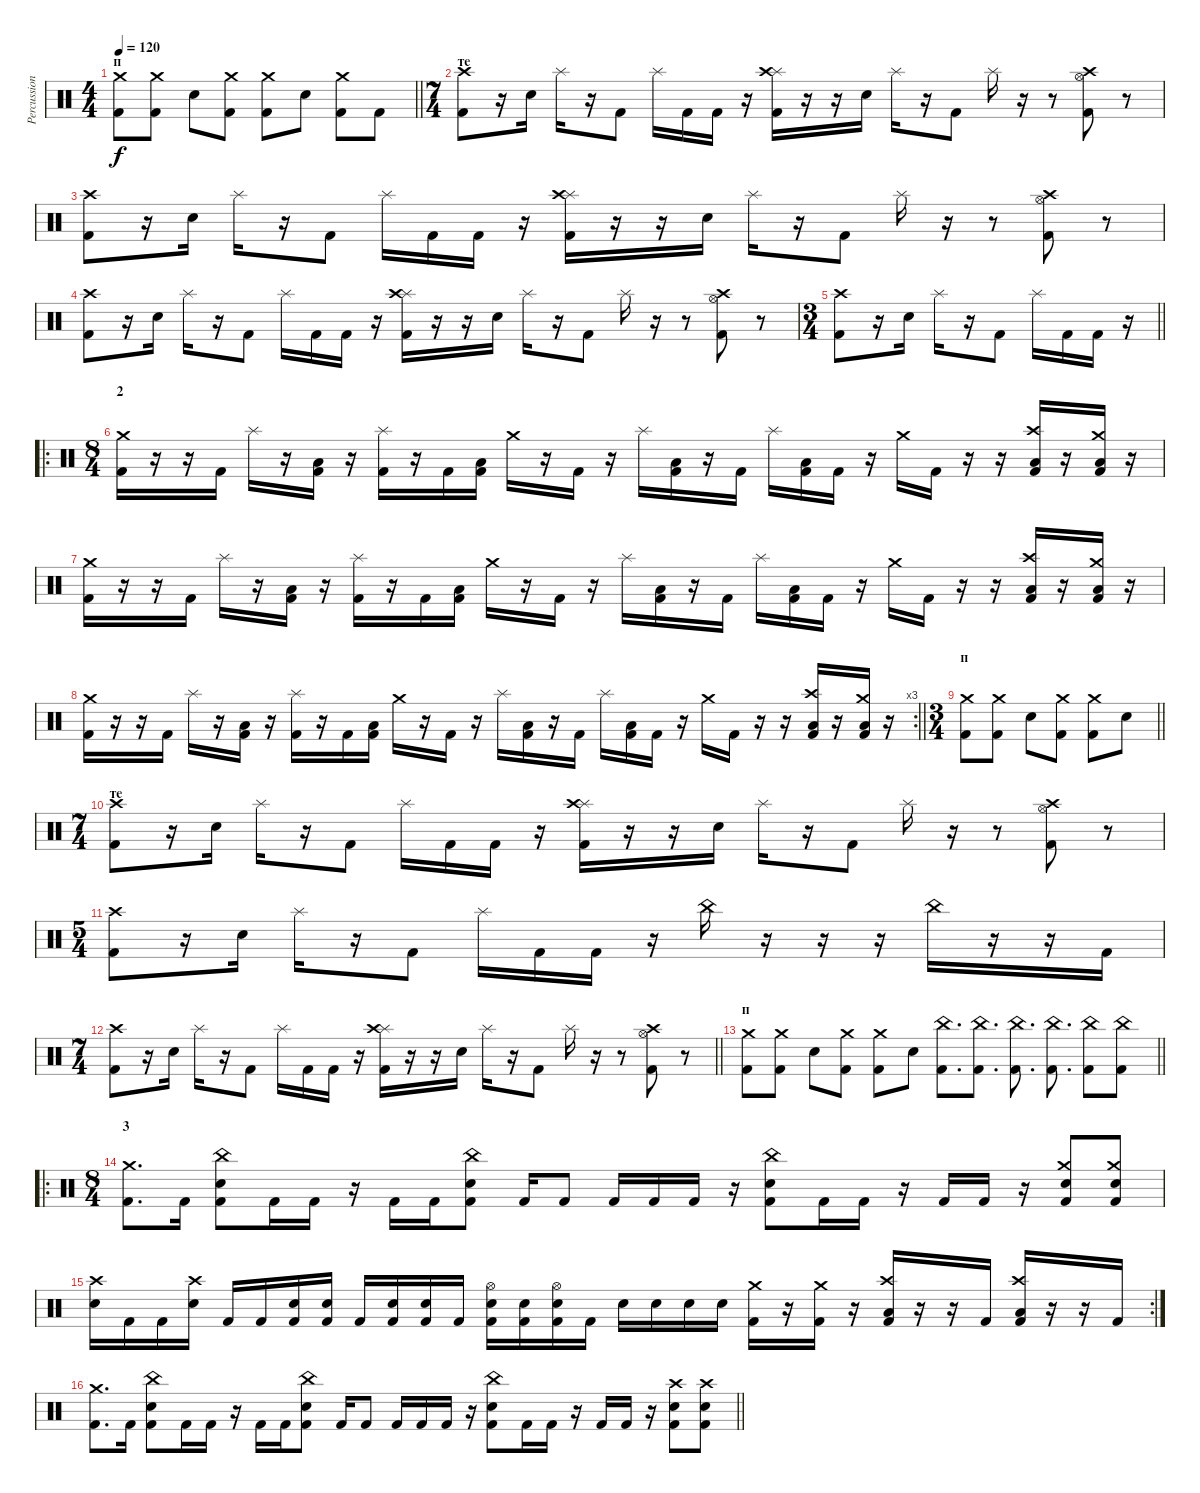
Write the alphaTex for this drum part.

\track ("Percussion" "Percussion") {instrument percussion}
\staff {score}
\articulation defaults
\ts (4 4)
\section ("" "п")
\tempo 120
\clef neutral
\barLineRight lightlight
\ks c
("Kick (hit) 2" "Crash medium (hit)").8{dy f} ("Kick (hit) 2" "Crash medium (hit)").8 "Snare (hit) 2".8 ("Kick (hit) 2" "Crash medium (hit)").8 ("Kick (hit) 2" "Crash medium (hit)").8 "Snare (hit) 2".8 ("Kick (hit) 2" "Crash medium (hit)").8 "Kick (hit) 2".8 |
\ts (7 4)
\section ("" "те")
("Crash high (hit)" "Kick (hit) 2").8 r.16 "Snare (hit) 2".16 "Splash (hit)".16 r.16 "Kick (hit) 2".8 "Splash (hit)".16 "Kick (hit) 2".16 "Kick (hit) 2".16 r.16 ("Splash (hit)" "Crash high (hit)" "Kick (hit) 2").16 r.16 r.16 "Snare (hit) 2".16 "Splash (hit)".16 r.16 "Kick (hit) 2".8 "Splash (hit)".16 r.16 r.8 ("Crash high (hit)" "Hi-Hat (open)" "Kick (hit) 2").8 r.8 |
("Crash high (hit)" "Kick (hit) 2").8 r.16 "Snare (hit) 2".16 "Splash (hit)".16 r.16 "Kick (hit) 2".8 "Splash (hit)".16 "Kick (hit) 2".16 "Kick (hit) 2".16 r.16 ("Splash (hit)" "Crash high (hit)" "Kick (hit) 2").16 r.16 r.16 "Snare (hit) 2".16 "Splash (hit)".16 r.16 "Kick (hit) 2".8 "Splash (hit)".16 r.16 r.8 ("Crash high (hit)" "Hi-Hat (open)" "Kick (hit) 2").8 r.8 |
("Crash high (hit)" "Kick (hit) 2").8 r.16 "Snare (hit) 2".16 "Splash (hit)".16 r.16 "Kick (hit) 2".8 "Splash (hit)".16 "Kick (hit) 2".16 "Kick (hit) 2".16 r.16 ("Splash (hit)" "Crash high (hit)" "Kick (hit) 2").16 r.16 r.16 "Snare (hit) 2".16 "Splash (hit)".16 r.16 "Kick (hit) 2".8 "Splash (hit)".16 r.16 r.8 ("Crash high (hit)" "Hi-Hat (open)" "Kick (hit) 2").8 r.8 |
\ts (3 4)
\barLineRight lightlight
("Crash high (hit)" "Kick (hit) 2").8 r.16 "Snare (hit) 2".16 "Splash (hit)".16 r.16 "Kick (hit) 2".8 "Splash (hit)".16 "Kick (hit) 2".16 "Kick (hit) 2".16 r.16 |
\ro
\ts (8 4)
\section ("" "2")
("Crash medium (hit)" "Kick (hit) 2").16 r.16 r.16 "Kick (hit) 2".16 "Splash (hit)".16 r.16 ("Low Floor Tom (hit)" "Kick (hit) 2").16 r.16 ("Splash (hit)" "Kick (hit) 2").16 r.16 "Kick (hit) 2".16 ("Low Floor Tom (hit)" "Kick (hit) 2").16 "Crash medium (hit)".16 r.16 "Kick (hit) 2".16 r.16 "Splash (hit)".16 ("Low Floor Tom (hit)" "Kick (hit) 2").16 r.16 "Kick (hit) 2".16 "Splash (hit)".16 ("Low Floor Tom (hit)" "Kick (hit) 2").16 "Kick (hit) 2".16 r.16 "Crash medium (hit)".16 "Kick (hit) 2".16 r.16 r.16 ("Crash high (hit)" "Low Floor Tom (hit)" "Kick (hit) 2").16 r.16 ("Crash medium (hit)" "Low Floor Tom (hit)" "Kick (hit) 2").16 r.16 |
("Crash medium (hit)" "Kick (hit) 2").16 r.16 r.16 "Kick (hit) 2".16 "Splash (hit)".16 r.16 ("Low Floor Tom (hit)" "Kick (hit) 2").16 r.16 ("Splash (hit)" "Kick (hit) 2").16 r.16 "Kick (hit) 2".16 ("Low Floor Tom (hit)" "Kick (hit) 2").16 "Crash medium (hit)".16 r.16 "Kick (hit) 2".16 r.16 "Splash (hit)".16 ("Low Floor Tom (hit)" "Kick (hit) 2").16 r.16 "Kick (hit) 2".16 "Splash (hit)".16 ("Low Floor Tom (hit)" "Kick (hit) 2").16 "Kick (hit) 2".16 r.16 "Crash medium (hit)".16 "Kick (hit) 2".16 r.16 r.16 ("Crash high (hit)" "Low Floor Tom (hit)" "Kick (hit) 2").16 r.16 ("Crash medium (hit)" "Low Floor Tom (hit)" "Kick (hit) 2").16 r.16 |
\rc 3
\barLineRight lightlight
("Crash medium (hit)" "Kick (hit) 2").16 r.16 r.16 "Kick (hit) 2".16 "Splash (hit)".16 r.16 ("Low Floor Tom (hit)" "Kick (hit) 2").16 r.16 ("Splash (hit)" "Kick (hit) 2").16 r.16 "Kick (hit) 2".16 ("Low Floor Tom (hit)" "Kick (hit) 2").16 "Crash medium (hit)".16 r.16 "Kick (hit) 2".16 r.16 "Splash (hit)".16 ("Low Floor Tom (hit)" "Kick (hit) 2").16 r.16 "Kick (hit) 2".16 "Splash (hit)".16 ("Low Floor Tom (hit)" "Kick (hit) 2").16 "Kick (hit) 2".16 r.16 "Crash medium (hit)".16 "Kick (hit) 2".16 r.16 r.16 ("Crash high (hit)" "Low Floor Tom (hit)" "Kick (hit) 2").16 r.16 ("Crash medium (hit)" "Low Floor Tom (hit)" "Kick (hit) 2").16 r.16 |
\ts (3 4)
\section ("" "п")
\barLineRight lightlight
("Kick (hit) 2" "Crash medium (hit)").8 ("Kick (hit) 2" "Crash medium (hit)").8 "Snare (hit) 2".8 ("Kick (hit) 2" "Crash medium (hit)").8 ("Kick (hit) 2" "Crash medium (hit)").8 "Snare (hit) 2".8 |
\ts (7 4)
\section ("" "те")
("Crash high (hit)" "Kick (hit) 2").8 r.16 "Snare (hit) 2".16 "Splash (hit)".16 r.16 "Kick (hit) 2".8 "Splash (hit)".16 "Kick (hit) 2".16 "Kick (hit) 2".16 r.16 ("Splash (hit)" "Crash high (hit)" "Kick (hit) 2").16 r.16 r.16 "Snare (hit) 2".16 "Splash (hit)".16 r.16 "Kick (hit) 2".8 "Splash (hit)".16 r.16 r.8 ("Crash high (hit)" "Hi-Hat (open)" "Kick (hit) 2").8 r.8 |
\ts (5 4)
("Crash high (hit)" "Kick (hit) 2").8 r.16 "Snare (hit) 2".16 "Splash (hit)".16 r.16 "Kick (hit) 2".8 "Splash (hit)".16 "Kick (hit) 2".16 "Kick (hit) 2".16 r.16 "China (hit)".16 r.16 r.16 r.16 "China (hit)".16 r.16 r.16 "Kick (hit) 2".16 |
\ts (7 4)
\barLineRight lightlight
("Crash high (hit)" "Kick (hit) 2").8 r.16 "Snare (hit) 2".16 "Splash (hit)".16 r.16 "Kick (hit) 2".8 "Splash (hit)".16 "Kick (hit) 2".16 "Kick (hit) 2".16 r.16 ("Splash (hit)" "Crash high (hit)" "Kick (hit) 2").16 r.16 r.16 "Snare (hit) 2".16 "Splash (hit)".16 r.16 "Kick (hit) 2".8 "Splash (hit)".16 r.16 r.8 ("Crash high (hit)" "Hi-Hat (open)" "Kick (hit) 2").8 r.8 |
\section ("" "п")
\barLineRight lightlight
("Kick (hit) 2" "Crash medium (hit)").8 ("Kick (hit) 2" "Crash medium (hit)").8 "Snare (hit) 2".8 ("Kick (hit) 2" "Crash medium (hit)").8 ("Kick (hit) 2" "Crash medium (hit)").8 "Snare (hit) 2".8 ("Kick (hit) 2" "China (hit)").8{d} ("Kick (hit) 2" "China (hit)").8{d} ("Kick (hit) 2" "China (hit)").8{d} ("Kick (hit) 2" "China (hit)").8{d} ("Kick (hit) 2" "China (hit)").8 ("Kick (hit) 2" "China (hit)").8 |
\ro
\ts (8 4)
\section ("" "3")
("Crash medium (hit)" "Kick (hit) 2").8{d} "Kick (hit) 2".16 ("China (hit)" "Snare (hit) 2" "Kick (hit) 2").8 "Kick (hit) 2".16 "Kick (hit) 2".16 r.16 "Kick (hit) 2".16 "Kick (hit) 2".16 ("China (hit)" "Snare (hit) 2" "Kick (hit) 2").8 "Kick (hit) 2".16 "Kick (hit) 2".8 "Kick (hit) 2".16 "Kick (hit) 2".16 "Kick (hit) 2".16 r.16 ("China (hit)" "Snare (hit) 2" "Kick (hit) 2").8 "Kick (hit) 2".16 "Kick (hit) 2".16 r.16 "Kick (hit) 2".16 "Kick (hit) 2".16 r.16 ("Crash medium (hit)" "Snare (hit) 2" "Kick (hit) 2").8 ("Crash medium (hit)" "Snare (hit) 2" "Kick (hit) 2").8 |
\rc 2
("Crash high (hit)" "Snare (hit) 2").16 "Kick (hit) 2".16 "Kick (hit) 2".16 ("Crash high (hit)" "Snare (hit) 2").16 "Kick (hit) 2".16 "Kick (hit) 2".16 ("Snare (hit) 2" "Kick (hit) 2").16 ("Snare (hit) 2" "Kick (hit) 2").16 "Kick (hit) 2".16 ("Snare (hit) 2" "Kick (hit) 2").16 ("Snare (hit) 2" "Kick (hit) 2").16 "Kick (hit) 2".16 ("Hi-Hat (open)" "Snare (hit) 2" "Kick (hit) 2").16 ("Snare (hit) 2" "Kick (hit) 2").16 ("Hi-Hat (open)" "Snare (hit) 2" "Kick (hit) 2").16 "Kick (hit) 2".16 "Snare (hit) 2".16 "Snare (hit) 2".16 "Snare (hit) 2".16 "Snare (hit) 2".16 ("Crash medium (hit)" "Kick (hit) 2").16 r.16 ("Crash medium (hit)" "Kick (hit) 2").16 r.16 ("Crash high (hit)" "Low Floor Tom (hit)" "Kick (hit) 2").16 r.16 r.16 "Kick (hit) 2".16 ("Crash high (hit)" "Low Floor Tom (hit)" "Kick (hit) 2").16 r.16 r.16 "Kick (hit) 2".16 |
\barLineRight lightlight
("Crash medium (hit)" "Kick (hit) 2").8{d} "Kick (hit) 2".16 ("China (hit)" "Snare (hit) 2" "Kick (hit) 2").8 "Kick (hit) 2".16 "Kick (hit) 2".16 r.16 "Kick (hit) 2".16 "Kick (hit) 2".16 ("China (hit)" "Snare (hit) 2" "Kick (hit) 2").8 "Kick (hit) 2".16 "Kick (hit) 2".8 "Kick (hit) 2".16 "Kick (hit) 2".16 "Kick (hit) 2".16 r.16 ("China (hit)" "Snare (hit) 2" "Kick (hit) 2").8 "Kick (hit) 2".16 "Kick (hit) 2".16 r.16 "Kick (hit) 2".16 "Kick (hit) 2".16 r.16 ("Crash high (hit)" "Snare (hit) 2" "Kick (hit) 2").8 ("Crash high (hit)" "Snare (hit) 2" "Kick (hit) 2").8
